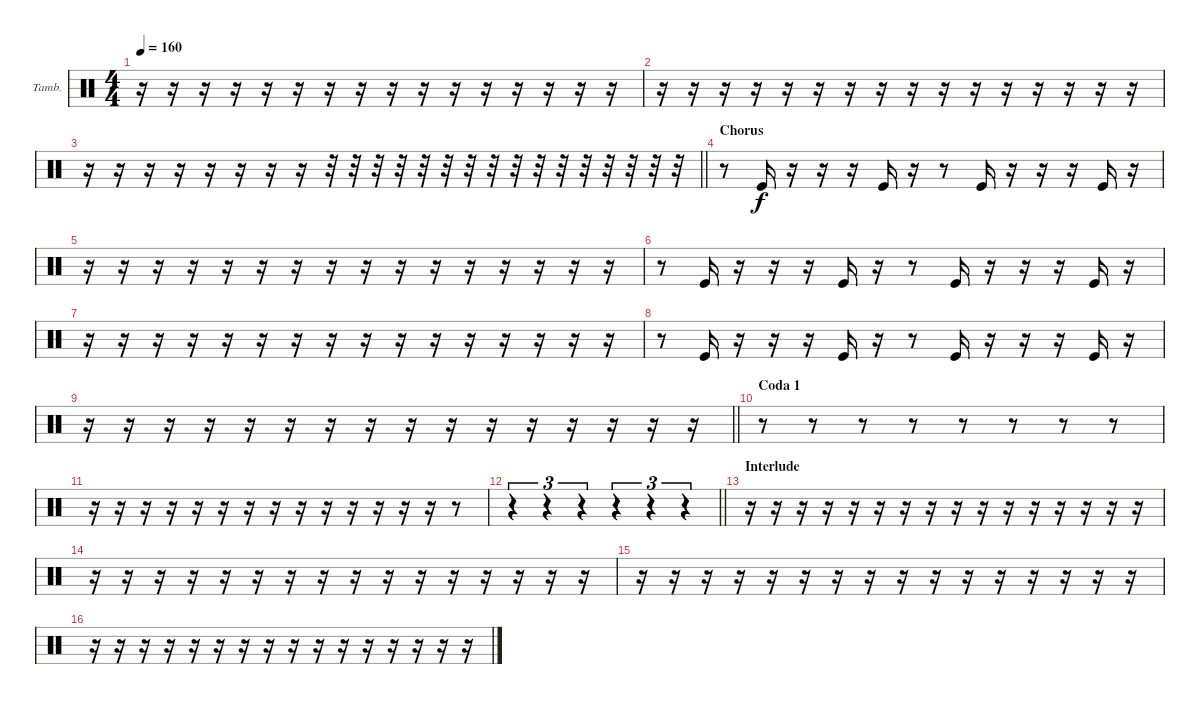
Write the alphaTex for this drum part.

\bracketExtendMode groupsimilarinstruments
\firstSystemTrackNameOrientation horizontal
\otherSystemsTrackNameOrientation horizontal
\track ("Tambourine" "Tamb.") {mute instrument percussion}
\staff {score}
\articulation defaults
\ts (4 4)
\tempo 160
\clef neutral
\ks c
r.16{dy f} r.16 r.16 r.16 r.16 r.16 r.16 r.16 r.16 r.16 r.16 r.16 r.16 r.16 r.16 r.16 |
r.16 r.16 r.16 r.16 r.16 r.16 r.16 r.16 r.16 r.16 r.16 r.16 r.16 r.16 r.16 r.16 |
\barLineRight lightlight
r.16 r.16 r.16 r.16 r.16 r.16 r.16 r.16 r.32 r.32 r.32 r.32 r.32 r.32 r.32 r.32 r.32 r.32 r.32 r.32 r.32 r.32 r.32 r.32 |
\section ("" "Chorus")
r.8 "Kick (hit)".16 r.16 r.16 r.16 "Kick (hit)".16 r.16 r.8 "Kick (hit)".16 r.16 r.16 r.16 "Kick (hit)".16 r.16 |
r.16 r.16 r.16 r.16 r.16 r.16 r.16 r.16 r.16 r.16 r.16 r.16 r.16 r.16 r.16 r.16 |
r.8 "Kick (hit)".16 r.16 r.16 r.16 "Kick (hit)".16 r.16 r.8 "Kick (hit)".16 r.16 r.16 r.16 "Kick (hit)".16 r.16 |
r.16 r.16 r.16 r.16 r.16 r.16 r.16 r.16 r.16 r.16 r.16 r.16 r.16 r.16 r.16 r.16 |
r.8 "Kick (hit)".16 r.16 r.16 r.16 "Kick (hit)".16 r.16 r.8 "Kick (hit)".16 r.16 r.16 r.16 "Kick (hit)".16 r.16 |
\barLineRight lightlight
r.16 r.16 r.16 r.16 r.16 r.16 r.16 r.16 r.16 r.16 r.16 r.16 r.16 r.16 r.16 r.16 |
\section ("" "Coda 1")
r.8 r.8 r.8 r.8 r.8 r.8 r.8 r.8 |
r.16 r.16 r.16 r.16 r.16 r.16 r.16 r.16 r.16 r.16 r.16 r.16 r.16 r.16 r.8 |
\barLineRight lightlight
r.4{tu (3 2)} r.4{tu (3 2)} r.4{tu (3 2)} r.4{tu (3 2)} r.4{tu (3 2)} r.4{tu (3 2)} |
\section ("" "Interlude")
r.16 r.16 r.16 r.16 r.16 r.16 r.16 r.16 r.16 r.16 r.16 r.16 r.16 r.16 r.16 r.16 |
r.16 r.16 r.16 r.16 r.16 r.16 r.16 r.16 r.16 r.16 r.16 r.16 r.16 r.16 r.16 r.16 |
r.16 r.16 r.16 r.16 r.16 r.16 r.16 r.16 r.16 r.16 r.16 r.16 r.16 r.16 r.16 r.16 |
r.16 r.16 r.16 r.16 r.16 r.16 r.16 r.16 r.16 r.16 r.16 r.16 r.16 r.16 r.16 r.16
